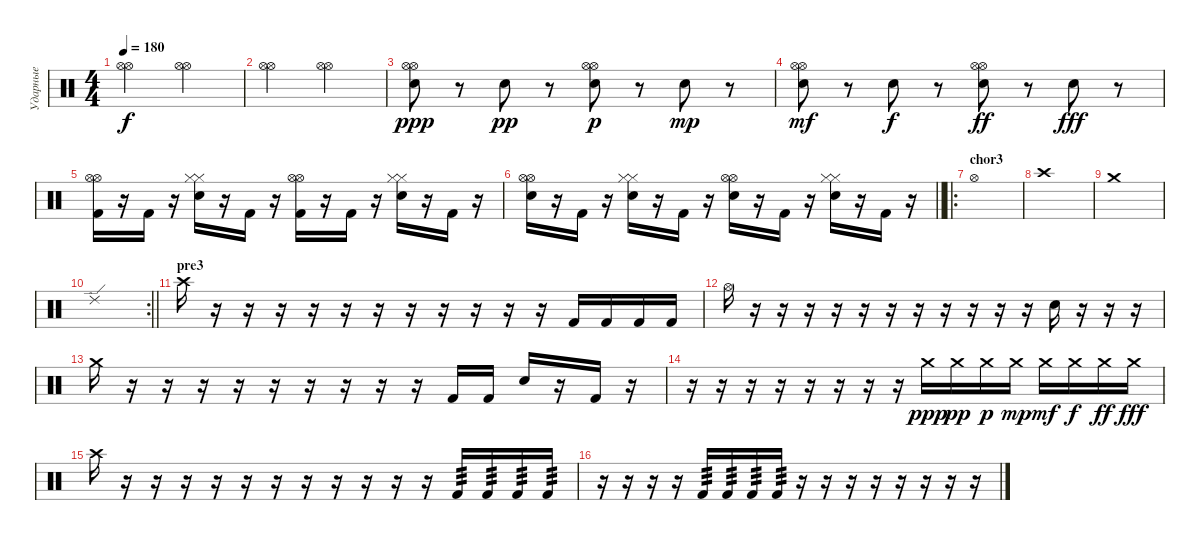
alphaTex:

\track ("Ударные" "Ударные") {instrument percussion}
\staff {score}
\articulation defaults
\ts (4 4)
\tempo 180
\clef neutral
\ks c
("Hi-Hat (open)" "Hi-Hat (open)").2{dy f} ("Hi-Hat (open)" "Hi-Hat (open)").2 |
("Hi-Hat (open)" "Hi-Hat (open)").2 ("Hi-Hat (open)" "Hi-Hat (open)").2 |
("Hi-Hat (open)" "Hi-Hat (open)" "Electric Snare (hit)").8{dy ppp} r.8 "Electric Snare (hit)".8{dy pp} r.8 ("Hi-Hat (open)" "Hi-Hat (open)" "Electric Snare (hit)").8{dy p} r.8 "Electric Snare (hit)".8{dy mp} r.8 |
("Hi-Hat (open)" "Hi-Hat (open)" "Electric Snare (hit)").8{dy mf} r.8 "Electric Snare (hit)".8{dy f} r.8 ("Hi-Hat (open)" "Hi-Hat (open)" "Electric Snare (hit)").8{dy ff} r.8 "Electric Snare (hit)".8{dy fff} r.8 |
("Hi-Hat (open)" "Hi-Hat (open)" "Kick (hit) 2").16 r.16 "Kick (hit) 2".16 r.16 ("Hi-Hat (closed)" "Hi-Hat (closed)" "Electric Snare (hit)").16 r.16 "Kick (hit) 2".16 r.16 ("Hi-Hat (open)" "Hi-Hat (open)" "Kick (hit) 2").16 r.16 "Kick (hit) 2".16 r.16 ("Hi-Hat (closed)" "Hi-Hat (closed)" "Electric Snare (hit)").16 r.16 "Kick (hit) 2".16 r.16 |
\barLineRight lightlight
("Hi-Hat (open)" "Hi-Hat (open)" "Electric Snare (hit)").16 r.16 "Kick (hit) 2".16 r.16 ("Hi-Hat (closed)" "Hi-Hat (closed)" "Electric Snare (hit)").16 r.16 "Kick (hit) 2".16 r.16 ("Hi-Hat (open)" "Hi-Hat (open)" "Electric Snare (hit)").16 r.16 "Kick (hit) 2".16 r.16 ("Hi-Hat (closed)" "Hi-Hat (closed)" "Electric Snare (hit)").16 r.16 "Kick (hit) 2".16 r.16 |
\ro
\section ("" "chor3")
"Hi-Hat (open)".1 |
"Crash high (hit)".1 |
"Crash medium (hit)".1 |
\rc 2
\barLineRight lightlight "Ride (edge) 2".1
|
\section ("" "pre3")
"Crash high (hit)".16 r.16 r.16 r.16 r.16 r.16 r.16 r.16 r.16 r.16 r.16 r.16 "Kick (hit) 2".16 "Kick (hit) 2".16 "Kick (hit) 2".16 "Kick (hit) 2".16 |
"Hi-Hat (open)".16 r.16 r.16 r.16 r.16 r.16 r.16 r.16 r.16 r.16 r.16 r.16 "Electric Snare (hit)".16 r.16 r.16 r.16 |
"Crash medium (hit)".16 r.16 r.16 r.16 r.16 r.16 r.16 r.16 r.16 r.16 "Kick (hit) 2".16 "Kick (hit) 2".16 "Electric Snare (hit)".16 r.16 "Kick (hit) 2".16 r.16 |
r.16 r.16 r.16 r.16 r.16 r.16 r.16 r.16 "Crash medium (hit)".16{dy ppp} "Crash medium (hit)".16{dy pp} "Crash medium (hit)".16{dy p} "Crash medium (hit)".16{dy mp} "Crash medium (hit)".16{dy mf} "Crash medium (hit)".16{dy f} "Crash medium (hit)".16{dy ff} "Crash medium (hit)".16{dy fff} |
"Crash high (hit)".16 r.16 r.16 r.16 r.16 r.16 r.16 r.16 r.16 r.16 r.16 r.16 "Kick (hit) 2".16{tp 3} "Kick (hit) 2".16{tp 3} "Kick (hit) 2".16{tp 3} "Kick (hit) 2".16{tp 3} |
r.16 r.16 r.16 r.16 "Kick (hit) 2".16{tp 3} "Kick (hit) 2".16{tp 3} "Kick (hit) 2".16{tp 3} "Kick (hit) 2".16{tp 3} r.16 r.16 r.16 r.16 r.16 r.16 r.16 r.16
